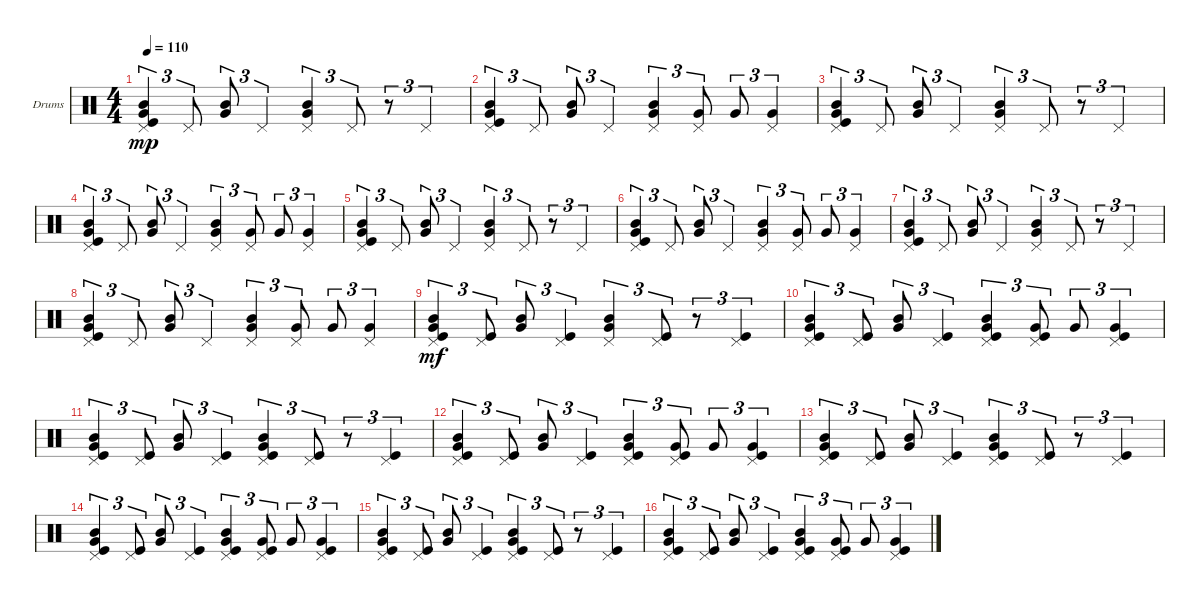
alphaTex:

\defaultSystemsLayout 4
\bracketExtendMode groupsimilarinstruments
\firstSystemTrackNameOrientation horizontal
\otherSystemsTrackNameOrientation horizontal
\track ("Drumkit" "Drums") {instrument percussion}
\staff {score}
\articulation defaults
\ts (4 4)
\tempo 110
\clef neutral
\scale
0.333333
\ks c
("Kick (hit)" "Pedal Hi-Hat (hit)" "Very Low Tom (hit)" "Mid Tom (hit)").4{tu (3 2) dy mp} "Pedal Hi-Hat (hit)".8{tu (3 2)} ("Mid Tom (hit)" "Very Low Tom (hit)").8{tu (3 2)} "Pedal Hi-Hat (hit)".4{tu (3 2)} ("Pedal Hi-Hat (hit)" "Very Low Tom (hit)" "Mid Tom (hit)").4{tu (3 2)} "Pedal Hi-Hat (hit)".8{tu (3 2)} r.8{tu (3 2)} "Pedal Hi-Hat (hit)".4{tu (3 2)} |
\scale
0.333333 ("Kick (hit)" "Pedal Hi-Hat (hit)" "Very Low Tom (hit)" "Mid Tom (hit)").4{tu (3 2)} "Pedal Hi-Hat (hit)".8{tu (3 2)} ("Mid Tom (hit)" "Very Low Tom (hit)").8{tu (3 2)} "Pedal Hi-Hat (hit)".4{tu (3 2)} ("Pedal Hi-Hat (hit)" "Very Low Tom (hit)" "Mid Tom (hit)").4{tu (3 2)} ("Pedal Hi-Hat (hit)" "Very Low Tom (hit)").8{tu (3 2)} "Very Low Tom (hit)".8{tu (3 2)} ("Pedal Hi-Hat (hit)" "Very Low Tom (hit)").4{tu (3 2)} |
\scale
0.333333 ("Kick (hit)" "Pedal Hi-Hat (hit)" "Very Low Tom (hit)" "Mid Tom (hit)").4{tu (3 2)} "Pedal Hi-Hat (hit)".8{tu (3 2)} ("Mid Tom (hit)" "Very Low Tom (hit)").8{tu (3 2)} "Pedal Hi-Hat (hit)".4{tu (3 2)} ("Pedal Hi-Hat (hit)" "Very Low Tom (hit)" "Mid Tom (hit)").4{tu (3 2)} "Pedal Hi-Hat (hit)".8{tu (3 2)} r.8{tu (3 2)} "Pedal Hi-Hat (hit)".4{tu (3 2)} |
\scale
0.333333 ("Kick (hit)" "Pedal Hi-Hat (hit)" "Very Low Tom (hit)" "Mid Tom (hit)").4{tu (3 2)} "Pedal Hi-Hat (hit)".8{tu (3 2)} ("Mid Tom (hit)" "Very Low Tom (hit)").8{tu (3 2)} "Pedal Hi-Hat (hit)".4{tu (3 2)} ("Pedal Hi-Hat (hit)" "Very Low Tom (hit)" "Mid Tom (hit)").4{tu (3 2)} ("Pedal Hi-Hat (hit)" "Very Low Tom (hit)").8{tu (3 2)} "Very Low Tom (hit)".8{tu (3 2)} ("Pedal Hi-Hat (hit)" "Very Low Tom (hit)").4{tu (3 2)} |
\scale
0.333333 ("Kick (hit)" "Pedal Hi-Hat (hit)" "Very Low Tom (hit)" "Mid Tom (hit)").4{tu (3 2)} "Pedal Hi-Hat (hit)".8{tu (3 2)} ("Mid Tom (hit)" "Very Low Tom (hit)").8{tu (3 2)} "Pedal Hi-Hat (hit)".4{tu (3 2)} ("Pedal Hi-Hat (hit)" "Very Low Tom (hit)" "Mid Tom (hit)").4{tu (3 2)} "Pedal Hi-Hat (hit)".8{tu (3 2)} r.8{tu (3 2)} "Pedal Hi-Hat (hit)".4{tu (3 2)} |
\scale
0.333333 ("Kick (hit)" "Pedal Hi-Hat (hit)" "Very Low Tom (hit)" "Mid Tom (hit)").4{tu (3 2)} "Pedal Hi-Hat (hit)".8{tu (3 2)} ("Mid Tom (hit)" "Very Low Tom (hit)").8{tu (3 2)} "Pedal Hi-Hat (hit)".4{tu (3 2)} ("Pedal Hi-Hat (hit)" "Very Low Tom (hit)" "Mid Tom (hit)").4{tu (3 2)} ("Pedal Hi-Hat (hit)" "Very Low Tom (hit)").8{tu (3 2)} "Very Low Tom (hit)".8{tu (3 2)} ("Pedal Hi-Hat (hit)" "Very Low Tom (hit)").4{tu (3 2)} |
("Kick (hit)" "Pedal Hi-Hat (hit)" "Very Low Tom (hit)" "Mid Tom (hit)").4{tu (3 2)} "Pedal Hi-Hat (hit)".8{tu (3 2)} ("Mid Tom (hit)" "Very Low Tom (hit)").8{tu (3 2)} "Pedal Hi-Hat (hit)".4{tu (3 2)} ("Pedal Hi-Hat (hit)" "Very Low Tom (hit)" "Mid Tom (hit)").4{tu (3 2)} "Pedal Hi-Hat (hit)".8{tu (3 2)} r.8{tu (3 2)} "Pedal Hi-Hat (hit)".4{tu (3 2)} |
("Kick (hit)" "Pedal Hi-Hat (hit)" "Very Low Tom (hit)" "Mid Tom (hit)").4{tu (3 2)} "Pedal Hi-Hat (hit)".8{tu (3 2)} ("Mid Tom (hit)" "Very Low Tom (hit)").8{tu (3 2)} "Pedal Hi-Hat (hit)".4{tu (3 2)} ("Pedal Hi-Hat (hit)" "Very Low Tom (hit)" "Mid Tom (hit)").4{tu (3 2)} ("Pedal Hi-Hat (hit)" "Very Low Tom (hit)").8{tu (3 2)} "Very Low Tom (hit)".8{tu (3 2)} ("Pedal Hi-Hat (hit)" "Very Low Tom (hit)").4{tu (3 2)} |
("Kick (hit)" "Pedal Hi-Hat (hit)" "Very Low Tom (hit)" "Mid Tom (hit)").4{tu (3 2) dy mf} ("Pedal Hi-Hat (hit)" "Kick (hit)").8{tu (3 2)} ("Mid Tom (hit)" "Very Low Tom (hit)").8{tu (3 2)} ("Pedal Hi-Hat (hit)" "Kick (hit)").4{tu (3 2)} ("Pedal Hi-Hat (hit)" "Very Low Tom (hit)" "Mid Tom (hit)").4{tu (3 2)} ("Pedal Hi-Hat (hit)" "Kick (hit)").8{tu (3 2)} r.8{tu (3 2)} ("Pedal Hi-Hat (hit)" "Kick (hit)").4{tu (3 2)} |
("Kick (hit)" "Pedal Hi-Hat (hit)" "Very Low Tom (hit)" "Mid Tom (hit)").4{tu (3 2)} ("Pedal Hi-Hat (hit)" "Kick (hit)").8{tu (3 2)} ("Mid Tom (hit)" "Very Low Tom (hit)").8{tu (3 2)} ("Pedal Hi-Hat (hit)" "Kick (hit)").4{tu (3 2)} ("Pedal Hi-Hat (hit)" "Very Low Tom (hit)" "Mid Tom (hit)" "Kick (hit)").4{tu (3 2)} ("Pedal Hi-Hat (hit)" "Very Low Tom (hit)" "Kick (hit)").8{tu (3 2)} "Very Low Tom (hit)".8{tu (3 2)} ("Pedal Hi-Hat (hit)" "Very Low Tom (hit)" "Kick (hit)").4{tu (3 2)} |
("Kick (hit)" "Pedal Hi-Hat (hit)" "Very Low Tom (hit)" "Mid Tom (hit)").4{tu (3 2)} ("Pedal Hi-Hat (hit)" "Kick (hit)").8{tu (3 2)} ("Mid Tom (hit)" "Very Low Tom (hit)").8{tu (3 2)} ("Pedal Hi-Hat (hit)" "Kick (hit)").4{tu (3 2)} ("Pedal Hi-Hat (hit)" "Very Low Tom (hit)" "Mid Tom (hit)" "Kick (hit)").4{tu (3 2)} ("Pedal Hi-Hat (hit)" "Kick (hit)").8{tu (3 2)} r.8{tu (3 2)} ("Pedal Hi-Hat (hit)" "Kick (hit)").4{tu (3 2)} |
("Kick (hit)" "Pedal Hi-Hat (hit)" "Very Low Tom (hit)" "Mid Tom (hit)").4{tu (3 2)} ("Pedal Hi-Hat (hit)" "Kick (hit)").8{tu (3 2)} ("Mid Tom (hit)" "Very Low Tom (hit)").8{tu (3 2)} ("Pedal Hi-Hat (hit)" "Kick (hit)").4{tu (3 2)} ("Pedal Hi-Hat (hit)" "Very Low Tom (hit)" "Mid Tom (hit)" "Kick (hit)").4{tu (3 2)} ("Pedal Hi-Hat (hit)" "Very Low Tom (hit)" "Kick (hit)").8{tu (3 2)} "Very Low Tom (hit)".8{tu (3 2)} ("Pedal Hi-Hat (hit)" "Very Low Tom (hit)" "Kick (hit)").4{tu (3 2)} |
("Kick (hit)" "Pedal Hi-Hat (hit)" "Very Low Tom (hit)" "Mid Tom (hit)").4{tu (3 2)} ("Pedal Hi-Hat (hit)" "Kick (hit)").8{tu (3 2)} ("Mid Tom (hit)" "Very Low Tom (hit)").8{tu (3 2)} ("Pedal Hi-Hat (hit)" "Kick (hit)").4{tu (3 2)} ("Pedal Hi-Hat (hit)" "Very Low Tom (hit)" "Mid Tom (hit)" "Kick (hit)").4{tu (3 2)} ("Pedal Hi-Hat (hit)" "Kick (hit)").8{tu (3 2)} r.8{tu (3 2)} ("Pedal Hi-Hat (hit)" "Kick (hit)").4{tu (3 2)} |
("Kick (hit)" "Pedal Hi-Hat (hit)" "Very Low Tom (hit)" "Mid Tom (hit)").4{tu (3 2)} ("Pedal Hi-Hat (hit)" "Kick (hit)").8{tu (3 2)} ("Mid Tom (hit)" "Very Low Tom (hit)").8{tu (3 2)} ("Pedal Hi-Hat (hit)" "Kick (hit)").4{tu (3 2)} ("Pedal Hi-Hat (hit)" "Very Low Tom (hit)" "Mid Tom (hit)" "Kick (hit)").4{tu (3 2)} ("Pedal Hi-Hat (hit)" "Very Low Tom (hit)" "Kick (hit)").8{tu (3 2)} "Very Low Tom (hit)".8{tu (3 2)} ("Pedal Hi-Hat (hit)" "Very Low Tom (hit)" "Kick (hit)").4{tu (3 2)} |
("Kick (hit)" "Pedal Hi-Hat (hit)" "Very Low Tom (hit)" "Mid Tom (hit)").4{tu (3 2)} ("Pedal Hi-Hat (hit)" "Kick (hit)").8{tu (3 2)} ("Mid Tom (hit)" "Very Low Tom (hit)").8{tu (3 2)} ("Pedal Hi-Hat (hit)" "Kick (hit)").4{tu (3 2)} ("Pedal Hi-Hat (hit)" "Very Low Tom (hit)" "Mid Tom (hit)" "Kick (hit)").4{tu (3 2)} ("Pedal Hi-Hat (hit)" "Kick (hit)").8{tu (3 2)} r.8{tu (3 2)} ("Pedal Hi-Hat (hit)" "Kick (hit)").4{tu (3 2)} |
("Kick (hit)" "Pedal Hi-Hat (hit)" "Very Low Tom (hit)" "Mid Tom (hit)").4{tu (3 2)} ("Pedal Hi-Hat (hit)" "Kick (hit)").8{tu (3 2)} ("Mid Tom (hit)" "Very Low Tom (hit)").8{tu (3 2)} ("Pedal Hi-Hat (hit)" "Kick (hit)").4{tu (3 2)} ("Pedal Hi-Hat (hit)" "Very Low Tom (hit)" "Mid Tom (hit)" "Kick (hit)").4{tu (3 2)} ("Pedal Hi-Hat (hit)" "Very Low Tom (hit)" "Kick (hit)").8{tu (3 2)} "Very Low Tom (hit)".8{tu (3 2)} ("Pedal Hi-Hat (hit)" "Very Low Tom (hit)" "Kick (hit)").4{tu (3 2)}
